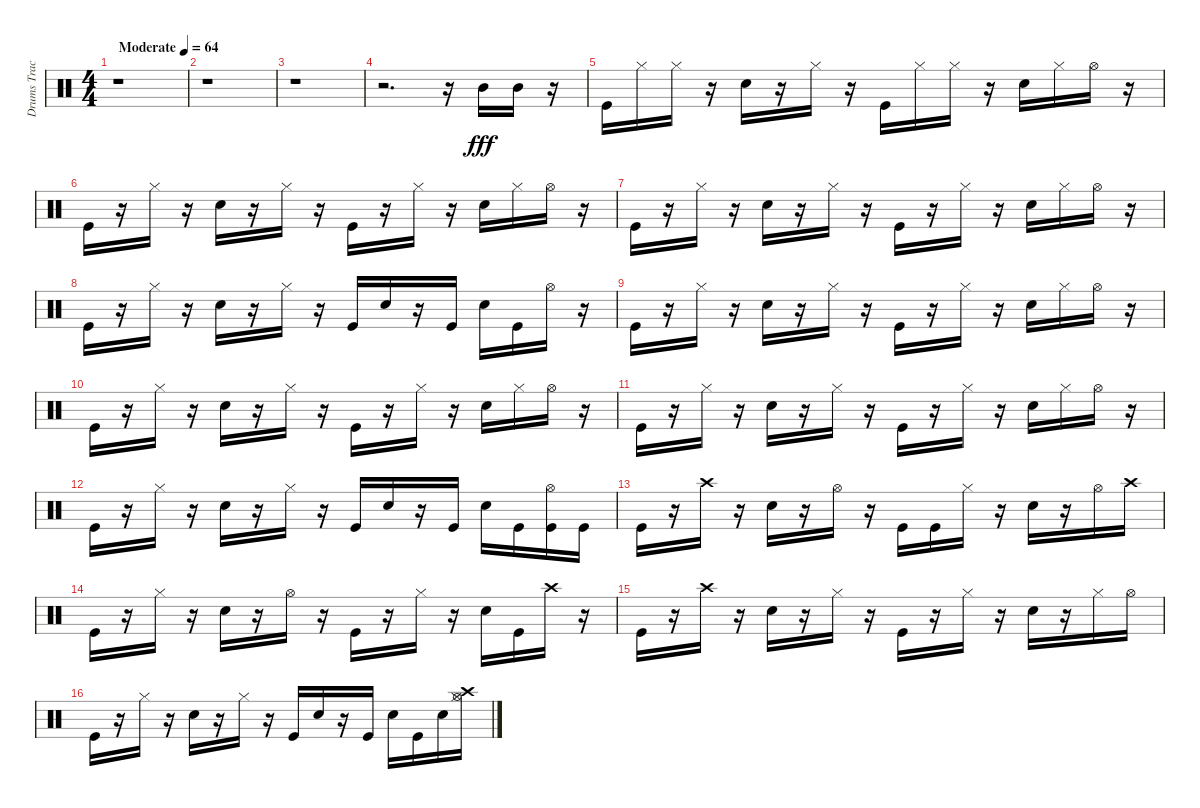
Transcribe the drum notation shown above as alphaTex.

\track ("Drums Track" "Drums Trac") {instrument percussion}
\staff {score}
\articulation defaults
\ts (4 4)
\tempo (64 "Moderate")
\clef neutral
\ks c
r.1{dy fff} |
r.1 |
r.1 |
r.2{d} r.16 "Mid Tom (hit)".16 "Mid Tom (hit)".16 r.16 |
"Kick (hit)".16 "Hi-Hat (closed)".16 "Hi-Hat (closed)".16 r.16 "Snare (hit) 2".16 r.16 "Hi-Hat (closed)".16 r.16 "Kick (hit)".16 "Hi-Hat (closed)".16 "Hi-Hat (closed)".16 r.16 "Snare (hit) 2".16 "Hi-Hat (closed)".16 "Hi-Hat (open)".16 r.16 |
"Kick (hit)".16 r.16 "Hi-Hat (closed)".16 r.16 "Snare (hit) 2".16 r.16 "Hi-Hat (closed)".16 r.16 "Kick (hit)".16 r.16 "Hi-Hat (closed)".16 r.16 "Snare (hit) 2".16 "Hi-Hat (closed)".16 "Hi-Hat (open)".16 r.16 |
"Kick (hit)".16 r.16 "Hi-Hat (closed)".16 r.16 "Snare (hit) 2".16 r.16 "Hi-Hat (closed)".16 r.16 "Kick (hit)".16 r.16 "Hi-Hat (closed)".16 r.16 "Snare (hit) 2".16 "Hi-Hat (closed)".16 "Hi-Hat (open)".16 r.16 |
"Kick (hit)".16 r.16 "Hi-Hat (closed)".16 r.16 "Snare (hit) 2".16 r.16 "Hi-Hat (closed)".16 r.16 "Kick (hit)".16 "Snare (hit) 2".16 r.16 "Kick (hit)".16 "Snare (hit) 2".16 "Kick (hit)".16 "Hi-Hat (open)".16 r.16 |
"Kick (hit)".16 r.16 "Hi-Hat (closed)".16 r.16 "Snare (hit) 2".16 r.16 "Hi-Hat (closed)".16 r.16 "Kick (hit)".16 r.16 "Hi-Hat (closed)".16 r.16 "Snare (hit) 2".16 "Hi-Hat (closed)".16 "Hi-Hat (open)".16 r.16 |
"Kick (hit)".16 r.16 "Hi-Hat (closed)".16 r.16 "Snare (hit) 2".16 r.16 "Hi-Hat (closed)".16 r.16 "Kick (hit)".16 r.16 "Hi-Hat (closed)".16 r.16 "Snare (hit) 2".16 "Hi-Hat (closed)".16 "Hi-Hat (open)".16 r.16 |
"Kick (hit)".16 r.16 "Hi-Hat (closed)".16 r.16 "Snare (hit) 2".16 r.16 "Hi-Hat (closed)".16 r.16 "Kick (hit)".16 r.16 "Hi-Hat (closed)".16 r.16 "Snare (hit) 2".16 "Hi-Hat (closed)".16 "Hi-Hat (open)".16 r.16 |
"Kick (hit)".16 r.16 "Hi-Hat (closed)".16 r.16 "Snare (hit) 2".16 r.16 "Hi-Hat (closed)".16 r.16 "Kick (hit)".16 "Snare (hit) 2".16 r.16 "Kick (hit)".16 "Snare (hit) 2".16 "Kick (hit)".16 ("Hi-Hat (open)" "Kick (hit)").16 "Kick (hit)".16 |
"Kick (hit)".16 r.16 "Crash high (hit)".16 r.16 "Snare (hit) 2".16 r.16 "Hi-Hat (open)".16 r.16 "Kick (hit)".16 "Kick (hit)".16 "Hi-Hat (closed)".16 r.16 "Snare (hit) 2".16 r.16 "Hi-Hat (open)".16 "Crash high (hit)".16 |
"Kick (hit)".16 r.16 "Hi-Hat (closed)".16 r.16 "Snare (hit) 2".16 r.16 "Hi-Hat (open)".16 r.16 "Kick (hit)".16 r.16 "Hi-Hat (closed)".16 r.16 "Snare (hit) 2".16 "Kick (hit)".16 "Crash high (hit)".16 r.16 |
"Kick (hit)".16 r.16 "Crash high (hit)".16 r.16 "Snare (hit) 2".16 r.16 "Hi-Hat (closed)".16 r.16 "Kick (hit)".16 r.16 "Hi-Hat (closed)".16 r.16 "Snare (hit) 2".16 r.16 "Hi-Hat (closed)".16 "Hi-Hat (open)".16 |
"Kick (hit)".16 r.16 "Hi-Hat (closed)".16 r.16 "Snare (hit) 2".16 r.16 "Hi-Hat (closed)".16 r.16 "Kick (hit)".16 "Snare (hit) 2".16 r.16 "Kick (hit)".16 "Snare (hit) 2".16 "Kick (hit)".16 "Snare (hit) 2".16 ("Hi-Hat (closed)" "Hi-Hat (open)" "Crash high (hit)").16
